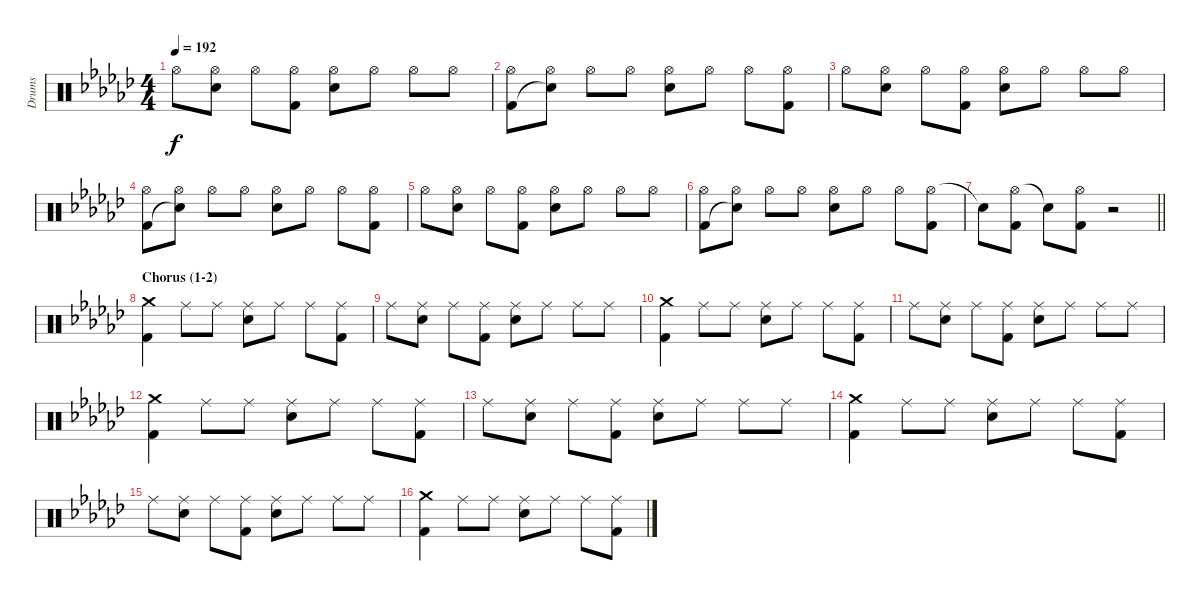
\track ("Drums" "Drums") {instrument percussion}
\staff {score}
\articulation defaults
\ts (4 4)
\tempo 192
\clef neutral
\ks ebminor "Hi-Hat (open)".8{dy f}
("Hi-Hat (open)" "Electric Snare (hit)").8 "Hi-Hat (open)".8 ("Hi-Hat (open)" "Kick (hit) 2").8 ("Hi-Hat (open)" "Electric Snare (hit)").8 "Hi-Hat (open)".8 "Hi-Hat (open)".8 "Hi-Hat (open)".8 |
("Hi-Hat (open)" "Kick (hit) 2").8 ("Hi-Hat (open)" "Snare (hit)"{t}).8 "Hi-Hat (open)".8 "Hi-Hat (open)".8 ("Hi-Hat (open)" "Electric Snare (hit)").8 "Hi-Hat (open)".8 "Hi-Hat (open)".8 ("Hi-Hat (open)" "Kick (hit) 2").8 |
"Hi-Hat (open)".8 ("Hi-Hat (open)" "Electric Snare (hit)").8 "Hi-Hat (open)".8 ("Hi-Hat (open)" "Kick (hit) 2").8 ("Hi-Hat (open)" "Electric Snare (hit)").8 "Hi-Hat (open)".8 "Hi-Hat (open)".8 "Hi-Hat (open)".8 |
("Hi-Hat (open)" "Kick (hit) 2").8 ("Hi-Hat (open)" "Snare (hit)"{t}).8 "Hi-Hat (open)".8 "Hi-Hat (open)".8 ("Hi-Hat (open)" "Electric Snare (hit)").8 "Hi-Hat (open)".8 "Hi-Hat (open)".8 ("Hi-Hat (open)" "Kick (hit) 2").8 |
"Hi-Hat (open)".8 ("Hi-Hat (open)" "Electric Snare (hit)").8 "Hi-Hat (open)".8 ("Hi-Hat (open)" "Kick (hit) 2").8 ("Hi-Hat (open)" "Electric Snare (hit)").8 "Hi-Hat (open)".8 "Hi-Hat (open)".8 "Hi-Hat (open)".8 |
("Hi-Hat (open)" "Kick (hit) 2").8 ("Hi-Hat (open)" "Snare (hit)"{t}).8 "Hi-Hat (open)".8 "Hi-Hat (open)".8 ("Hi-Hat (open)" "Electric Snare (hit)").8 "Hi-Hat (open)".8 "Hi-Hat (open)".8 ("Hi-Hat (open)" "Kick (hit) 2").8 |
\barLineRight lightlight "Snare (hit)"{t}.8
("Hi-Hat (open)" "Kick (hit) 2").8 "Snare (hit)"{t}.8 ("Hi-Hat (open)" "Kick (hit) 2").8 r.2 |
\section ("" "Chorus (1-2)")
("Crash medium (hit)" "Kick (hit) 2").4 "Ride (middle)".8 "Ride (middle)".8 ("Ride (middle)" "Electric Snare (hit)").8 "Ride (middle)".8 "Ride (middle)".8 ("Ride (middle)" "Kick (hit) 2").8 |
"Ride (middle)".8 ("Ride (middle)" "Electric Snare (hit)").8 "Ride (middle)".8 ("Ride (middle)" "Kick (hit) 2").8 ("Ride (middle)" "Electric Snare (hit)").8 "Ride (middle)".8 "Ride (middle)".8 "Ride (middle)".8 |
("Crash medium (hit)" "Kick (hit) 2").4 "Ride (middle)".8 "Ride (middle)".8 ("Ride (middle)" "Electric Snare (hit)").8 "Ride (middle)".8 "Ride (middle)".8 ("Ride (middle)" "Kick (hit) 2").8 |
"Ride (middle)".8 ("Ride (middle)" "Electric Snare (hit)").8 "Ride (middle)".8 ("Ride (middle)" "Kick (hit) 2").8 ("Ride (middle)" "Electric Snare (hit)").8 "Ride (middle)".8 "Ride (middle)".8 "Ride (middle)".8 |
("Crash medium (hit)" "Kick (hit) 2").4 "Ride (middle)".8 "Ride (middle)".8 ("Ride (middle)" "Electric Snare (hit)").8 "Ride (middle)".8 "Ride (middle)".8 ("Ride (middle)" "Kick (hit) 2").8 |
"Ride (middle)".8 ("Ride (middle)" "Electric Snare (hit)").8 "Ride (middle)".8 ("Ride (middle)" "Kick (hit) 2").8 ("Ride (middle)" "Electric Snare (hit)").8 "Ride (middle)".8 "Ride (middle)".8 "Ride (middle)".8 |
("Crash medium (hit)" "Kick (hit) 2").4 "Ride (middle)".8 "Ride (middle)".8 ("Ride (middle)" "Electric Snare (hit)").8 "Ride (middle)".8 "Ride (middle)".8 ("Ride (middle)" "Kick (hit) 2").8 |
"Ride (middle)".8 ("Ride (middle)" "Electric Snare (hit)").8 "Ride (middle)".8 ("Ride (middle)" "Kick (hit) 2").8 ("Ride (middle)" "Electric Snare (hit)").8 "Ride (middle)".8 "Ride (middle)".8 "Ride (middle)".8 |
("Crash medium (hit)" "Kick (hit) 2").4 "Ride (middle)".8 "Ride (middle)".8 ("Ride (middle)" "Electric Snare (hit)").8 "Ride (middle)".8 "Ride (middle)".8 ("Ride (middle)" "Kick (hit) 2").8
